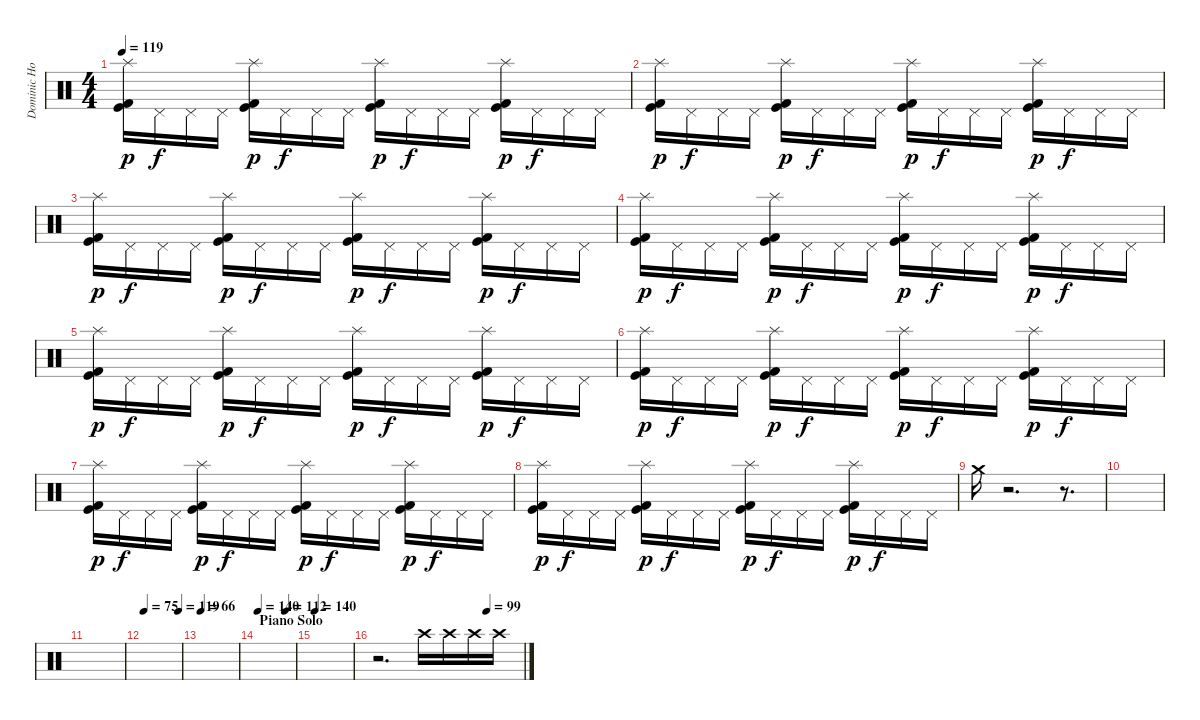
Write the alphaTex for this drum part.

\track ("Dominic Howard" "Dominic Ho") {instrument percussion}
\staff {score}
\articulation defaults
\ts (4 4)
\tempo 119
\clef neutral
\ks c
("Splash (hit)" "Kick (hit)" "Kick (hit) 2").16{dy p} "Pedal Hi-Hat (hit)".16{dy f} "Pedal Hi-Hat (hit)".16 "Pedal Hi-Hat (hit)".16 ("Splash (hit)" "Kick (hit)" "Kick (hit) 2").16{dy p} "Pedal Hi-Hat (hit)".16{dy f} "Pedal Hi-Hat (hit)".16 "Pedal Hi-Hat (hit)".16 ("Splash (hit)" "Kick (hit)" "Kick (hit) 2").16{dy p} "Pedal Hi-Hat (hit)".16{dy f} "Pedal Hi-Hat (hit)".16 "Pedal Hi-Hat (hit)".16 ("Splash (hit)" "Kick (hit)" "Kick (hit) 2").16{dy p} "Pedal Hi-Hat (hit)".16{dy f} "Pedal Hi-Hat (hit)".16 "Pedal Hi-Hat (hit)".16 |
("Splash (hit)" "Kick (hit)" "Kick (hit) 2").16{dy p} "Pedal Hi-Hat (hit)".16{dy f} "Pedal Hi-Hat (hit)".16 "Pedal Hi-Hat (hit)".16 ("Splash (hit)" "Kick (hit)" "Kick (hit) 2").16{dy p} "Pedal Hi-Hat (hit)".16{dy f} "Pedal Hi-Hat (hit)".16 "Pedal Hi-Hat (hit)".16 ("Splash (hit)" "Kick (hit)" "Kick (hit) 2").16{dy p} "Pedal Hi-Hat (hit)".16{dy f} "Pedal Hi-Hat (hit)".16 "Pedal Hi-Hat (hit)".16 ("Splash (hit)" "Kick (hit)" "Kick (hit) 2").16{dy p} "Pedal Hi-Hat (hit)".16{dy f} "Pedal Hi-Hat (hit)".16 "Pedal Hi-Hat (hit)".16 |
("Splash (hit)" "Kick (hit)" "Kick (hit) 2").16{dy p} "Pedal Hi-Hat (hit)".16{dy f} "Pedal Hi-Hat (hit)".16 "Pedal Hi-Hat (hit)".16 ("Splash (hit)" "Kick (hit)" "Kick (hit) 2").16{dy p} "Pedal Hi-Hat (hit)".16{dy f} "Pedal Hi-Hat (hit)".16 "Pedal Hi-Hat (hit)".16 ("Splash (hit)" "Kick (hit)" "Kick (hit) 2").16{dy p} "Pedal Hi-Hat (hit)".16{dy f} "Pedal Hi-Hat (hit)".16 "Pedal Hi-Hat (hit)".16 ("Splash (hit)" "Kick (hit)" "Kick (hit) 2").16{dy p} "Pedal Hi-Hat (hit)".16{dy f} "Pedal Hi-Hat (hit)".16 "Pedal Hi-Hat (hit)".16 |
("Splash (hit)" "Kick (hit)" "Kick (hit) 2").16{dy p} "Pedal Hi-Hat (hit)".16{dy f} "Pedal Hi-Hat (hit)".16 "Pedal Hi-Hat (hit)".16 ("Splash (hit)" "Kick (hit)" "Kick (hit) 2").16{dy p} "Pedal Hi-Hat (hit)".16{dy f} "Pedal Hi-Hat (hit)".16 "Pedal Hi-Hat (hit)".16 ("Splash (hit)" "Kick (hit)" "Kick (hit) 2").16{dy p} "Pedal Hi-Hat (hit)".16{dy f} "Pedal Hi-Hat (hit)".16 "Pedal Hi-Hat (hit)".16 ("Splash (hit)" "Kick (hit)" "Kick (hit) 2").16{dy p} "Pedal Hi-Hat (hit)".16{dy f} "Pedal Hi-Hat (hit)".16 "Pedal Hi-Hat (hit)".16 |
("Splash (hit)" "Kick (hit)" "Kick (hit) 2").16{dy p} "Pedal Hi-Hat (hit)".16{dy f} "Pedal Hi-Hat (hit)".16 "Pedal Hi-Hat (hit)".16 ("Splash (hit)" "Kick (hit)" "Kick (hit) 2").16{dy p} "Pedal Hi-Hat (hit)".16{dy f} "Pedal Hi-Hat (hit)".16 "Pedal Hi-Hat (hit)".16 ("Splash (hit)" "Kick (hit)" "Kick (hit) 2").16{dy p} "Pedal Hi-Hat (hit)".16{dy f} "Pedal Hi-Hat (hit)".16 "Pedal Hi-Hat (hit)".16 ("Splash (hit)" "Kick (hit)" "Kick (hit) 2").16{dy p} "Pedal Hi-Hat (hit)".16{dy f} "Pedal Hi-Hat (hit)".16 "Pedal Hi-Hat (hit)".16 |
("Splash (hit)" "Kick (hit)" "Kick (hit) 2").16{dy p} "Pedal Hi-Hat (hit)".16{dy f} "Pedal Hi-Hat (hit)".16 "Pedal Hi-Hat (hit)".16 ("Splash (hit)" "Kick (hit)" "Kick (hit) 2").16{dy p} "Pedal Hi-Hat (hit)".16{dy f} "Pedal Hi-Hat (hit)".16 "Pedal Hi-Hat (hit)".16 ("Splash (hit)" "Kick (hit)" "Kick (hit) 2").16{dy p} "Pedal Hi-Hat (hit)".16{dy f} "Pedal Hi-Hat (hit)".16 "Pedal Hi-Hat (hit)".16 ("Splash (hit)" "Kick (hit)" "Kick (hit) 2").16{dy p} "Pedal Hi-Hat (hit)".16{dy f} "Pedal Hi-Hat (hit)".16 "Pedal Hi-Hat (hit)".16 |
("Splash (hit)" "Kick (hit)" "Kick (hit) 2").16{dy p} "Pedal Hi-Hat (hit)".16{dy f} "Pedal Hi-Hat (hit)".16 "Pedal Hi-Hat (hit)".16 ("Splash (hit)" "Kick (hit)" "Kick (hit) 2").16{dy p} "Pedal Hi-Hat (hit)".16{dy f} "Pedal Hi-Hat (hit)".16 "Pedal Hi-Hat (hit)".16 ("Splash (hit)" "Kick (hit)" "Kick (hit) 2").16{dy p} "Pedal Hi-Hat (hit)".16{dy f} "Pedal Hi-Hat (hit)".16 "Pedal Hi-Hat (hit)".16 ("Splash (hit)" "Kick (hit)" "Kick (hit) 2").16{dy p} "Pedal Hi-Hat (hit)".16{dy f} "Pedal Hi-Hat (hit)".16 "Pedal Hi-Hat (hit)".16 |
("Splash (hit)" "Kick (hit)" "Kick (hit) 2").16{dy p} "Pedal Hi-Hat (hit)".16{dy f} "Pedal Hi-Hat (hit)".16 "Pedal Hi-Hat (hit)".16 ("Splash (hit)" "Kick (hit)" "Kick (hit) 2").16{dy p} "Pedal Hi-Hat (hit)".16{dy f} "Pedal Hi-Hat (hit)".16 "Pedal Hi-Hat (hit)".16 ("Splash (hit)" "Kick (hit)" "Kick (hit) 2").16{dy p} "Pedal Hi-Hat (hit)".16{dy f} "Pedal Hi-Hat (hit)".16 "Pedal Hi-Hat (hit)".16 ("Splash (hit)" "Kick (hit)" "Kick (hit) 2").16{dy p} "Pedal Hi-Hat (hit)".16{dy f} "Pedal Hi-Hat (hit)".16 "Pedal Hi-Hat (hit)".16 |
"Crash medium (hit)".16 r.2{d} r.8{d} |
|
|
\tempo 75
\tempo (119 0.9375)
|
\tempo 66
|
\section ("" "Piano Solo")
\tempo 140
\tempo (112 0.75)
|
\tempo 140
|
\tempo (99 0.75)
r.2{d} "Crash high (hit)".16{volume 4} "Crash high (hit)".16{volume 16} "Crash high (hit)".16 "Crash high (hit)".16
